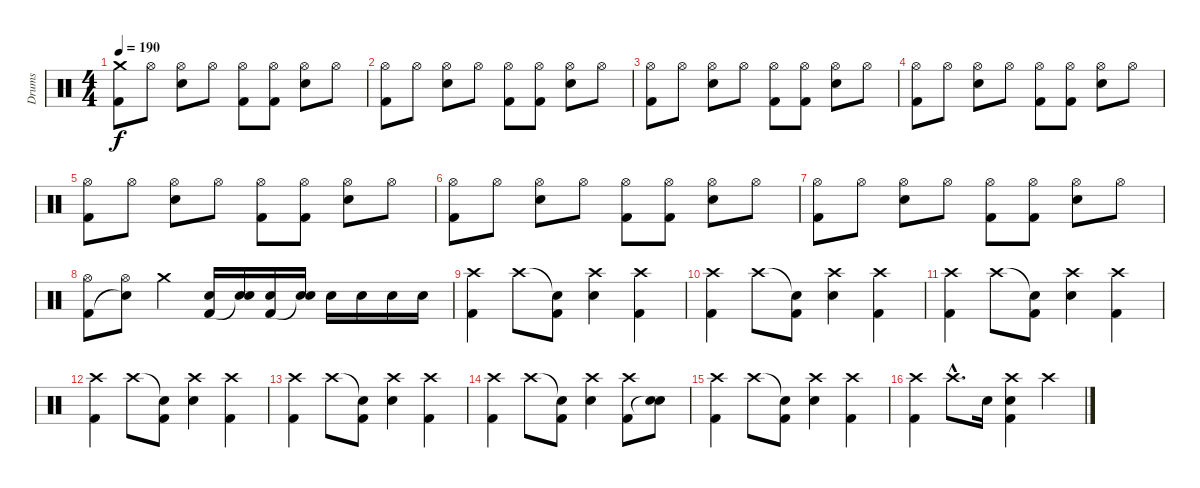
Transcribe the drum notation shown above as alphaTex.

\track ("Drums" "Drums") {instrument percussion}
\staff {score}
\articulation defaults
\ts (4 4)
\tempo 190
\clef neutral
\ks c
("Crash medium (hit)" "Kick (hit) 2").8{dy f} "Hi-Hat (open)".8 ("Hi-Hat (open)" "Snare (hit) 2").8 "Hi-Hat (open)".8 ("Hi-Hat (open)" "Kick (hit) 2").8 ("Hi-Hat (open)" "Kick (hit) 2").8 ("Hi-Hat (open)" "Snare (hit) 2").8 "Hi-Hat (open)".8 |
("Hi-Hat (open)" "Kick (hit) 2").8 "Hi-Hat (open)".8 ("Hi-Hat (open)" "Snare (hit) 2").8 "Hi-Hat (open)".8 ("Hi-Hat (open)" "Kick (hit) 2").8 ("Hi-Hat (open)" "Kick (hit) 2").8 ("Hi-Hat (open)" "Snare (hit) 2").8 "Hi-Hat (open)".8 |
("Hi-Hat (open)" "Kick (hit) 2").8 "Hi-Hat (open)".8 ("Hi-Hat (open)" "Snare (hit) 2").8 "Hi-Hat (open)".8 ("Hi-Hat (open)" "Kick (hit) 2").8 ("Hi-Hat (open)" "Kick (hit) 2").8 ("Hi-Hat (open)" "Snare (hit) 2").8 "Hi-Hat (open)".8 |
("Hi-Hat (open)" "Kick (hit) 2").8 "Hi-Hat (open)".8 ("Hi-Hat (open)" "Snare (hit) 2").8 "Hi-Hat (open)".8 ("Hi-Hat (open)" "Kick (hit) 2").8 ("Hi-Hat (open)" "Kick (hit) 2").8 ("Hi-Hat (open)" "Snare (hit) 2").8 "Hi-Hat (open)".8 |
("Hi-Hat (open)" "Kick (hit) 2").8 "Hi-Hat (open)".8 ("Hi-Hat (open)" "Snare (hit) 2").8 "Hi-Hat (open)".8 ("Hi-Hat (open)" "Kick (hit) 2").8 ("Hi-Hat (open)" "Kick (hit) 2").8 ("Hi-Hat (open)" "Snare (hit) 2").8 "Hi-Hat (open)".8 |
("Hi-Hat (open)" "Kick (hit) 2").8 "Hi-Hat (open)".8 ("Hi-Hat (open)" "Snare (hit) 2").8 "Hi-Hat (open)".8 ("Hi-Hat (open)" "Kick (hit) 2").8 ("Hi-Hat (open)" "Kick (hit) 2").8 ("Hi-Hat (open)" "Snare (hit) 2").8 "Hi-Hat (open)".8 |
("Hi-Hat (open)" "Kick (hit) 2").8 "Hi-Hat (open)".8 ("Hi-Hat (open)" "Snare (hit) 2").8 "Hi-Hat (open)".8 ("Hi-Hat (open)" "Kick (hit) 2").8 ("Hi-Hat (open)" "Kick (hit) 2").8 ("Hi-Hat (open)" "Snare (hit) 2").8 "Hi-Hat (open)".8 |
("Hi-Hat (open)" "Kick (hit) 2").8 ("Hi-Hat (open)" "Snare (hit)"{t}).8 "Crash medium (hit)".4 ("Snare (hit) 2" "Kick (hit) 2").16 ("Snare (hit) 2" "Snare (hit)"{t}).16 ("Snare (hit) 2" "Kick (hit) 2").16 ("Snare (hit) 2" "Snare (hit)"{t}).16 "Snare (hit) 2".16 "Snare (hit) 2".16 "Snare (hit) 2".16 "Snare (hit) 2".16 |
("Crash high (hit)" "Kick (hit) 2").4 "Crash high (hit)".8 ("Snare (hit)"{t} "Kick (hit) 2").8 ("Crash high (hit)" "Snare (hit) 2").4 ("Crash high (hit)" "Kick (hit) 2").4 |
("Crash high (hit)" "Kick (hit) 2").4 "Crash high (hit)".8 ("Snare (hit)"{t} "Kick (hit) 2").8 ("Crash high (hit)" "Snare (hit) 2").4 ("Crash high (hit)" "Kick (hit) 2").4 |
("Crash high (hit)" "Kick (hit) 2").4 "Crash high (hit)".8 ("Snare (hit)"{t} "Kick (hit) 2").8 ("Crash high (hit)" "Snare (hit) 2").4 ("Crash high (hit)" "Kick (hit) 2").4 |
("Crash high (hit)" "Kick (hit) 2").4 "Crash high (hit)".8 ("Snare (hit)"{t} "Kick (hit) 2").8 ("Crash high (hit)" "Snare (hit) 2").4 ("Crash high (hit)" "Kick (hit) 2").4 |
("Crash high (hit)" "Kick (hit) 2").4 "Crash high (hit)".8 ("Snare (hit)"{t} "Kick (hit) 2").8 ("Crash high (hit)" "Snare (hit) 2").4 ("Crash high (hit)" "Kick (hit) 2").4 |
("Crash high (hit)" "Kick (hit) 2").4 "Crash high (hit)".8 ("Snare (hit)"{t} "Kick (hit) 2").8 ("Crash high (hit)" "Snare (hit) 2").4 ("Crash high (hit)" "Kick (hit) 2").8 ("Snare (hit) 2" "Snare (hit)"{t}).8 |
("Crash high (hit)" "Kick (hit) 2").4 "Crash high (hit)".8 ("Snare (hit)"{t} "Kick (hit) 2").8 ("Crash high (hit)" "Snare (hit) 2").4 ("Crash high (hit)" "Kick (hit) 2").4 |
("Crash high (hit)" "Kick (hit) 2").4 "Crash high (hit)"{hac}.8{d} "Snare (hit) 2".16 ("Crash high (hit)" "Snare (hit) 2" "Kick (hit) 2").4 "Crash high (hit)".4
